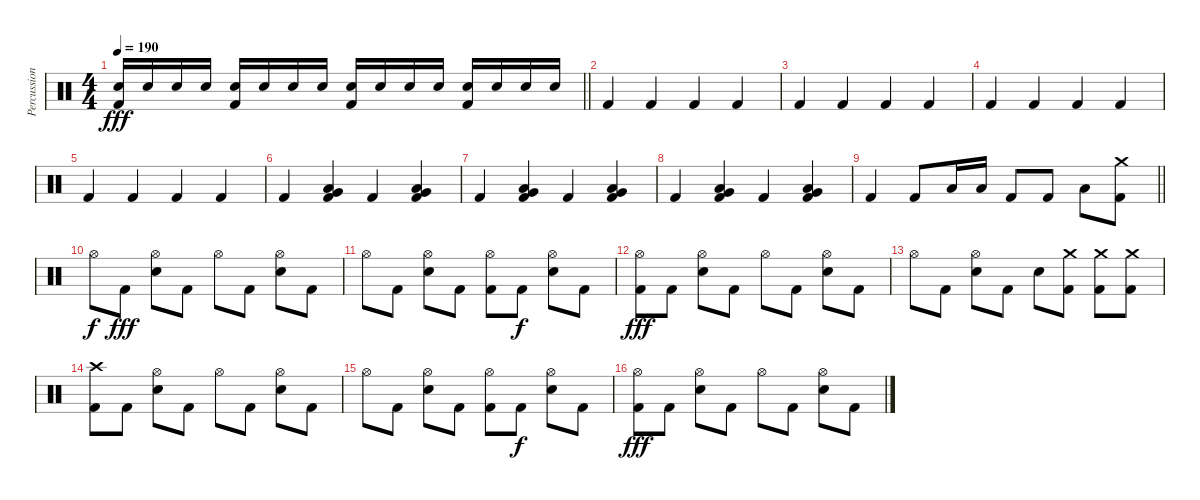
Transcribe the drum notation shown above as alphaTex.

\track ("Percussion" "Percussion") {instrument percussion}
\staff {score}
\articulation defaults
\ts (4 4)
\tempo 190
\clef neutral
\barLineRight lightlight
\ks c
("Electric Snare (hit)" "Kick (hit) 2").16{dy fff} "Electric Snare (hit)".16 "Electric Snare (hit)".16 "Electric Snare (hit)".16 ("Electric Snare (hit)" "Kick (hit) 2").16 "Electric Snare (hit)".16 "Electric Snare (hit)".16 "Electric Snare (hit)".16 ("Electric Snare (hit)" "Kick (hit) 2").16 "Electric Snare (hit)".16 "Electric Snare (hit)".16 "Electric Snare (hit)".16 ("Electric Snare (hit)" "Kick (hit) 2").16 "Electric Snare (hit)".16 "Electric Snare (hit)".16 "Electric Snare (hit)".16 |
"Kick (hit) 2".4 "Kick (hit) 2".4 "Kick (hit) 2".4 "Kick (hit) 2".4 |
"Kick (hit) 2".4 "Kick (hit) 2".4 "Kick (hit) 2".4 "Kick (hit) 2".4 |
"Kick (hit) 2".4 "Kick (hit) 2".4 "Kick (hit) 2".4 "Kick (hit) 2".4 |
"Kick (hit) 2".4 "Kick (hit) 2".4 "Kick (hit) 2".4 "Kick (hit) 2".4 |
"Kick (hit) 2".4 ("Very Low Tom (hit)" "Low Floor Tom (hit)" "Kick (hit) 2").4 "Kick (hit) 2".4 ("Very Low Tom (hit)" "Low Floor Tom (hit)" "Kick (hit) 2").4 |
"Kick (hit) 2".4 ("Very Low Tom (hit)" "Low Floor Tom (hit)" "Kick (hit) 2").4 "Kick (hit) 2".4 ("Very Low Tom (hit)" "Low Floor Tom (hit)" "Kick (hit) 2").4 |
"Kick (hit) 2".4 ("Very Low Tom (hit)" "Low Floor Tom (hit)" "Kick (hit) 2").4 "Kick (hit) 2".4 ("Very Low Tom (hit)" "Low Floor Tom (hit)" "Kick (hit) 2").4 |
\barLineRight lightlight "Kick (hit) 2".4 "Kick (hit) 2".8 "Low Floor Tom (hit)".16 "Low Floor Tom (hit)".16 "Kick (hit) 2".8 "Kick (hit) 2".8 "Low Floor Tom (hit)".8
("Crash medium (hit)" "Kick (hit) 2").8 |
"Hi-Hat (open)".8{dy f} "Kick (hit) 2".8{dy fff} ("Hi-Hat (open)" "Electric Snare (hit)").8 "Kick (hit) 2".8 "Hi-Hat (open)".8 "Kick (hit) 2".8 ("Hi-Hat (open)" "Electric Snare (hit)").8 "Kick (hit) 2".8 |
"Hi-Hat (open)".8 "Kick (hit) 2".8 ("Hi-Hat (open)" "Electric Snare (hit)").8 "Kick (hit) 2".8 ("Hi-Hat (open)" "Kick (hit) 2").8 "Kick (hit) 2".8{dy f} ("Hi-Hat (open)" "Electric Snare (hit)").8 "Kick (hit) 2".8 |
("Hi-Hat (open)" "Kick (hit) 2").8{dy fff} "Kick (hit) 2".8 ("Hi-Hat (open)" "Electric Snare (hit)").8 "Kick (hit) 2".8 "Hi-Hat (open)".8 "Kick (hit) 2".8 ("Hi-Hat (open)" "Electric Snare (hit)").8 "Kick (hit) 2".8 |
"Hi-Hat (open)".8 "Kick (hit) 2".8 ("Hi-Hat (open)" "Electric Snare (hit)").8 "Kick (hit) 2".8 "Electric Snare (hit)".8 ("Crash medium (hit)" "Kick (hit) 2").8 ("Crash medium (hit)" "Kick (hit) 2").8 ("Crash medium (hit)" "Kick (hit) 2").8 |
("Crash high (hit)" "Kick (hit) 2").8 "Kick (hit) 2".8 ("Hi-Hat (open)" "Electric Snare (hit)").8 "Kick (hit) 2".8 "Hi-Hat (open)".8 "Kick (hit) 2".8 ("Hi-Hat (open)" "Electric Snare (hit)").8 "Kick (hit) 2".8 |
"Hi-Hat (open)".8 "Kick (hit) 2".8 ("Hi-Hat (open)" "Electric Snare (hit)").8 "Kick (hit) 2".8 ("Hi-Hat (open)" "Kick (hit) 2").8 "Kick (hit) 2".8{dy f} ("Hi-Hat (open)" "Electric Snare (hit)").8 "Kick (hit) 2".8 |
("Hi-Hat (open)" "Kick (hit) 2").8{dy fff} "Kick (hit) 2".8 ("Hi-Hat (open)" "Electric Snare (hit)").8 "Kick (hit) 2".8 "Hi-Hat (open)".8 "Kick (hit) 2".8 ("Hi-Hat (open)" "Electric Snare (hit)").8 "Kick (hit) 2".8
